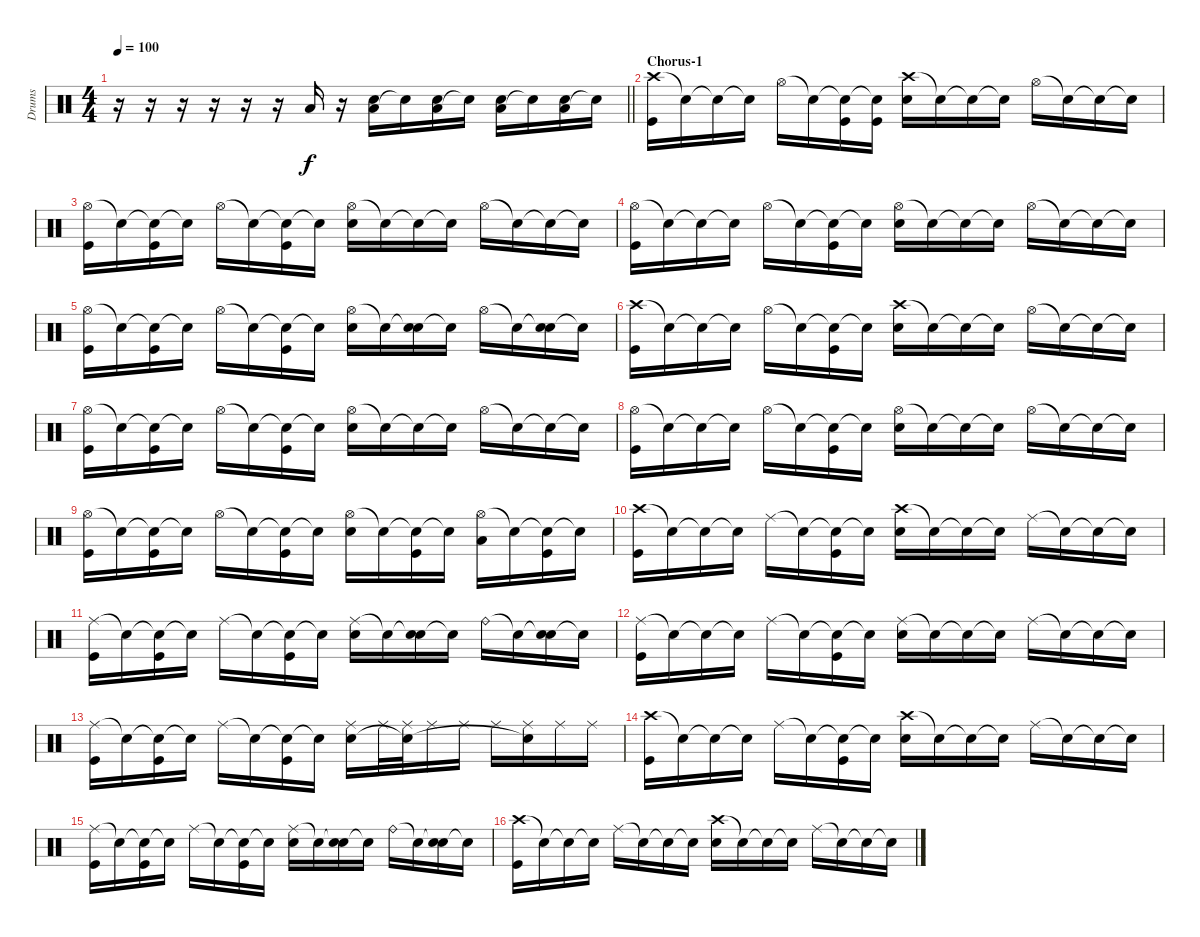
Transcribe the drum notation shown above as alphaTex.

\track ("Drums" "Drums") {instrument percussion}
\staff {score}
\articulation defaults
\ts (4 4)
\tempo 100
\clef neutral
\barLineRight lightlight
\ks c
r.16{dy f} r.16 r.16 r.16 r.16 r.16 "Low Tom (hit)".16 r.16 ("Low Tom (hit)" "Electric Snare (hit)").16 "Snare (hit)"{t}.16 ("Low Tom (hit)" "Electric Snare (hit)").16 "Snare (hit)"{t}.16 ("Low Tom (hit)" "Electric Snare (hit)").16 "Snare (hit)"{t}.16 ("Low Tom (hit)" "Electric Snare (hit)").16 "Snare (hit)"{t}.16 |
\section ("" "Chorus-1")
("Crash high (hit)" "Kick (hit)").16 "Snare (hit)"{t}.16 "Snare (hit)"{t}.16 "Snare (hit)"{t}.16 "Hi-Hat (open)".16 "Snare (hit)"{t}.16 ("Snare (hit)"{t} "Kick (hit)").16 ("Snare (hit)"{t} "Kick (hit)").16 ("Crash high (hit)" "Electric Snare (hit)").16 "Snare (hit)"{t}.16 "Snare (hit)"{t}.16 "Snare (hit)"{t}.16 "Hi-Hat (open)".16 "Snare (hit)"{t}.16 "Snare (hit)"{t}.16 "Snare (hit)"{t}.16 |
("Hi-Hat (open)" "Kick (hit)").16 "Snare (hit)"{t}.16 ("Snare (hit)"{t} "Kick (hit)").16 "Snare (hit)"{t}.16 "Hi-Hat (open)".16 "Snare (hit)"{t}.16 ("Snare (hit)"{t} "Kick (hit)").16 "Snare (hit)"{t}.16 ("Hi-Hat (open)" "Electric Snare (hit)").16 "Snare (hit)"{t}.16 "Snare (hit)"{t}.16 "Snare (hit)"{t}.16 "Hi-Hat (open)".16 "Snare (hit)"{t}.16 "Snare (hit)"{t}.16 "Snare (hit)"{t}.16 |
("Hi-Hat (open)" "Kick (hit)").16 "Snare (hit)"{t}.16 "Snare (hit)"{t}.16 "Snare (hit)"{t}.16 "Hi-Hat (open)".16 "Snare (hit)"{t}.16 ("Snare (hit)"{t} "Kick (hit)").16 "Snare (hit)"{t}.16 ("Hi-Hat (open)" "Electric Snare (hit)").16 "Snare (hit)"{t}.16 "Snare (hit)"{t}.16 "Snare (hit)"{t}.16 "Hi-Hat (open)".16 "Snare (hit)"{t}.16 "Snare (hit)"{t}.16 "Snare (hit)"{t}.16 |
("Hi-Hat (open)" "Kick (hit)").16 "Snare (hit)"{t}.16 ("Snare (hit)"{t} "Kick (hit)").16 "Snare (hit)"{t}.16 "Hi-Hat (open)".16 "Snare (hit)"{t}.16 ("Snare (hit)"{t} "Kick (hit)").16 "Snare (hit)"{t}.16 ("Hi-Hat (open)" "Electric Snare (hit)").16 "Snare (hit)"{t}.16 ("Snare (hit)"{t} "Electric Snare (hit)").16 "Snare (hit)"{t}.16 "Hi-Hat (open)".16 "Snare (hit)"{t}.16 ("Snare (hit)"{t} "Electric Snare (hit)").16 "Snare (hit)"{t}.16 |
("Crash high (hit)" "Kick (hit)").16 "Snare (hit)"{t}.16 "Snare (hit)"{t}.16 "Snare (hit)"{t}.16 "Hi-Hat (open)".16 "Snare (hit)"{t}.16 ("Snare (hit)"{t} "Kick (hit)").16 "Snare (hit)"{t}.16 ("Crash high (hit)" "Electric Snare (hit)").16 "Snare (hit)"{t}.16 "Snare (hit)"{t}.16 "Snare (hit)"{t}.16 "Hi-Hat (open)".16 "Snare (hit)"{t}.16 "Snare (hit)"{t}.16 "Snare (hit)"{t}.16 |
("Hi-Hat (open)" "Kick (hit)").16 "Snare (hit)"{t}.16 ("Snare (hit)"{t} "Kick (hit)").16 "Snare (hit)"{t}.16 "Hi-Hat (open)".16 "Snare (hit)"{t}.16 ("Snare (hit)"{t} "Kick (hit)").16 "Snare (hit)"{t}.16 ("Hi-Hat (open)" "Electric Snare (hit)").16 "Snare (hit)"{t}.16 "Snare (hit)"{t}.16 "Snare (hit)"{t}.16 "Hi-Hat (open)".16 "Snare (hit)"{t}.16 "Snare (hit)"{t}.16 "Snare (hit)"{t}.16 |
("Hi-Hat (open)" "Kick (hit)").16 "Snare (hit)"{t}.16 "Snare (hit)"{t}.16 "Snare (hit)"{t}.16 "Hi-Hat (open)".16 "Snare (hit)"{t}.16 ("Snare (hit)"{t} "Kick (hit)").16 "Snare (hit)"{t}.16 ("Hi-Hat (open)" "Electric Snare (hit)").16 "Snare (hit)"{t}.16 "Snare (hit)"{t}.16 "Snare (hit)"{t}.16 "Hi-Hat (open)".16 "Snare (hit)"{t}.16 "Snare (hit)"{t}.16 "Snare (hit)"{t}.16 |
("Hi-Hat (open)" "Kick (hit)").16 "Snare (hit)"{t}.16 ("Snare (hit)"{t} "Kick (hit)").16 "Snare (hit)"{t}.16 "Hi-Hat (open)".16 "Snare (hit)"{t}.16 ("Snare (hit)"{t} "Kick (hit)").16 "Snare (hit)"{t}.16 ("Hi-Hat (open)" "Electric Snare (hit)").16 "Snare (hit)"{t}.16 ("Snare (hit)"{t} "Kick (hit)").16 "Snare (hit)"{t}.16 ("Hi-Hat (open)" "Low Tom (hit)").16 "Snare (hit)"{t}.16 ("Snare (hit)"{t} "Kick (hit)").16 "Snare (hit)"{t}.16 |
("Crash high (hit)" "Kick (hit)").16 "Snare (hit)"{t}.16 "Snare (hit)"{t}.16 "Snare (hit)"{t}.16 "Ride (middle)".16 "Snare (hit)"{t}.16 ("Snare (hit)"{t} "Kick (hit)").16 "Snare (hit)"{t}.16 ("Crash high (hit)" "Electric Snare (hit)").16 "Snare (hit)"{t}.16 "Snare (hit)"{t}.16 "Snare (hit)"{t}.16 "Ride (middle)".16 "Snare (hit)"{t}.16 "Snare (hit)"{t}.16 "Snare (hit)"{t}.16 |
("Ride (middle)" "Kick (hit)").16 "Snare (hit)"{t}.16 ("Snare (hit)"{t} "Kick (hit)").16 "Snare (hit)"{t}.16 "Ride (middle)".16 "Snare (hit)"{t}.16 ("Snare (hit)"{t} "Kick (hit)").16 "Snare (hit)"{t}.16 ("Ride (middle)" "Electric Snare (hit)").16 "Snare (hit)"{t}.16 ("Snare (hit)"{t} "Electric Snare (hit)").16 "Snare (hit)"{t}.16 "Ride (bell)".16 "Snare (hit)"{t}.16 ("Snare (hit)"{t} "Electric Snare (hit)").16 "Snare (hit)"{t}.16 |
("Ride (middle)" "Kick (hit)").16 "Snare (hit)"{t}.16 "Snare (hit)"{t}.16 "Snare (hit)"{t}.16 "Ride (middle)".16 "Snare (hit)"{t}.16 ("Snare (hit)"{t} "Kick (hit)").16 "Snare (hit)"{t}.16 ("Ride (middle)" "Electric Snare (hit)").16 "Snare (hit)"{t}.16 "Snare (hit)"{t}.16 "Snare (hit)"{t}.16 "Ride (middle)".16 "Snare (hit)"{t}.16 "Snare (hit)"{t}.16 "Snare (hit)"{t}.16 |
("Ride (middle)" "Kick (hit)").16 "Snare (hit)"{t}.16 ("Snare (hit)"{t} "Kick (hit)").16 "Snare (hit)"{t}.16 "Ride (middle)".16 "Snare (hit)"{t}.16 ("Snare (hit)"{t} "Kick (hit)").16 "Snare (hit)"{t}.16 ("Ride (middle)" "Electric Snare (hit)").16 "Ride (middle)".32 ("Ride (middle)" "Electric Snare (hit)"{t}).32 "Ride (middle)".16 "Ride (middle)".16 "Ride (middle)".16 ("Ride (middle)" "Electric Snare (hit)"{t}).16 "Ride (middle)".16 "Ride (middle)".16 |
("Crash high (hit)" "Kick (hit)").16 "Snare (hit)"{t}.16 "Snare (hit)"{t}.16 "Snare (hit)"{t}.16 "Ride (middle)".16 "Snare (hit)"{t}.16 ("Snare (hit)"{t} "Kick (hit)").16 "Snare (hit)"{t}.16 ("Crash high (hit)" "Electric Snare (hit)").16 "Snare (hit)"{t}.16 "Snare (hit)"{t}.16 "Snare (hit)"{t}.16 "Ride (middle)".16 "Snare (hit)"{t}.16 "Snare (hit)"{t}.16 "Snare (hit)"{t}.16 |
("Ride (middle)" "Kick (hit)").16 "Snare (hit)"{t}.16 ("Snare (hit)"{t} "Kick (hit)").16 "Snare (hit)"{t}.16 "Ride (middle)".16 "Snare (hit)"{t}.16 ("Snare (hit)"{t} "Kick (hit)").16 "Snare (hit)"{t}.16 ("Ride (middle)" "Electric Snare (hit)").16 "Snare (hit)"{t}.16 ("Snare (hit)"{t} "Electric Snare (hit)").16 "Snare (hit)"{t}.16 "Ride (bell)".16 "Snare (hit)"{t}.16 ("Snare (hit)"{t} "Electric Snare (hit)").16 "Snare (hit)"{t}.16 |
("Crash high (hit)" "Kick (hit)").16 "Snare (hit)"{t}.16 "Snare (hit)"{t}.16 "Snare (hit)"{t}.16 "Ride (middle)".16 "Snare (hit)"{t}.16 "Snare (hit)"{t}.16 "Snare (hit)"{t}.16 ("Crash high (hit)" "Electric Snare (hit)").16 "Snare (hit)"{t}.16 "Snare (hit)"{t}.16 "Snare (hit)"{t}.16 "Ride (middle)".16 "Snare (hit)"{t}.16 "Snare (hit)"{t}.16 "Snare (hit)"{t}.16
